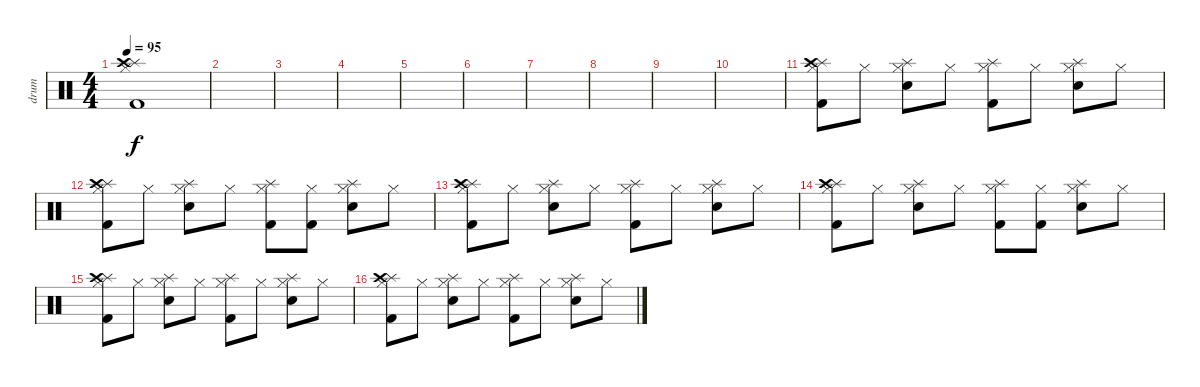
\track ("drum" "drum") {instrument percussion}
\staff {score}
\articulation defaults
\ts (4 4)
\tempo 95
\clef neutral
\ks c
("Splash (hit)" "Hi-Hat (closed)" "Crash high (hit)" "Kick (hit) 2").1{dy f} |
|
|
|
|
|
|
|
|
|
("Splash (hit)" "Hi-Hat (closed)" "Crash high (hit)" "Kick (hit) 2").8 "Hi-Hat (closed)".8 ("Splash (hit)" "Hi-Hat (closed)" "Electric Snare (hit)").8 "Hi-Hat (closed)".8 ("Splash (hit)" "Hi-Hat (closed)" "Kick (hit) 2").8 "Hi-Hat (closed)".8 ("Splash (hit)" "Hi-Hat (closed)" "Electric Snare (hit)").8 "Hi-Hat (closed)".8 |
("Splash (hit)" "Hi-Hat (closed)" "Crash high (hit)" "Kick (hit) 2").8 "Hi-Hat (closed)".8 ("Splash (hit)" "Hi-Hat (closed)" "Electric Snare (hit)").8 "Hi-Hat (closed)".8 ("Splash (hit)" "Hi-Hat (closed)" "Kick (hit) 2").8 ("Hi-Hat (closed)" "Kick (hit) 2").8 ("Splash (hit)" "Hi-Hat (closed)" "Electric Snare (hit)").8 "Hi-Hat (closed)".8 |
("Splash (hit)" "Hi-Hat (closed)" "Crash high (hit)" "Kick (hit) 2").8 "Hi-Hat (closed)".8 ("Splash (hit)" "Hi-Hat (closed)" "Electric Snare (hit)").8 "Hi-Hat (closed)".8 ("Splash (hit)" "Hi-Hat (closed)" "Kick (hit) 2").8 "Hi-Hat (closed)".8 ("Splash (hit)" "Hi-Hat (closed)" "Electric Snare (hit)").8 "Hi-Hat (closed)".8 |
("Splash (hit)" "Hi-Hat (closed)" "Crash high (hit)" "Kick (hit) 2").8 "Hi-Hat (closed)".8 ("Splash (hit)" "Hi-Hat (closed)" "Electric Snare (hit)").8 "Hi-Hat (closed)".8 ("Splash (hit)" "Hi-Hat (closed)" "Kick (hit) 2").8 ("Hi-Hat (closed)" "Kick (hit) 2").8 ("Splash (hit)" "Hi-Hat (closed)" "Electric Snare (hit)").8 "Hi-Hat (closed)".8 |
("Splash (hit)" "Hi-Hat (closed)" "Crash high (hit)" "Kick (hit) 2").8 "Hi-Hat (closed)".8 ("Splash (hit)" "Hi-Hat (closed)" "Electric Snare (hit)").8 "Hi-Hat (closed)".8 ("Splash (hit)" "Hi-Hat (closed)" "Kick (hit) 2").8 "Hi-Hat (closed)".8 ("Splash (hit)" "Hi-Hat (closed)" "Electric Snare (hit)").8 "Hi-Hat (closed)".8 |
("Splash (hit)" "Hi-Hat (closed)" "Crash high (hit)" "Kick (hit) 2").8 "Hi-Hat (closed)".8 ("Splash (hit)" "Hi-Hat (closed)" "Electric Snare (hit)").8 "Hi-Hat (closed)".8 ("Splash (hit)" "Hi-Hat (closed)" "Kick (hit) 2").8 "Hi-Hat (closed)".8 ("Splash (hit)" "Hi-Hat (closed)" "Electric Snare (hit)").8 "Hi-Hat (closed)".8
